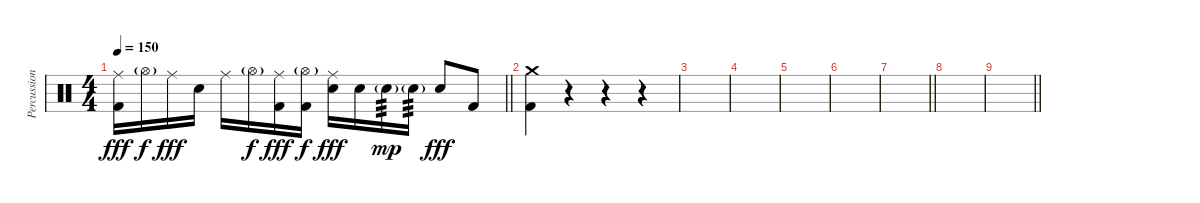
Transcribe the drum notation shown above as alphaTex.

\track ("Percussion" "Percussion") {instrument percussion}
\staff {score}
\articulation defaults
\ts (4 4)
\tempo 150
\clef neutral
\barLineRight lightlight
\ks c
("Ride (middle)" "Kick (hit) 2").16{dy fff} "Hi-Hat (open)"{g}.16{dy f} "Ride (middle)".16{dy fff} "Electric Snare (hit)".16 "Ride (middle)".16 "Hi-Hat (open)"{g}.16{dy f} ("Ride (middle)" "Kick (hit) 2").16{dy fff} ("Hi-Hat (open)"{g} "Kick (hit) 2").16{dy f} ("Ride (middle)" "Electric Snare (hit)").16{dy fff} "Electric Snare (hit)".16 "Electric Snare (hit)"{g}.16{tp 3 dy mp} "Electric Snare (hit)"{g}.16{tp 3} "Electric Snare (hit)".8{dy fff} "Kick (hit) 2".8 |
\section ("" "")
("Crash medium (hit)" "Kick (hit) 2").4 r.4 r.4 r.4 |
|
|
|
|
\barLineRight lightlight
|
|
\barLineRight lightlight
